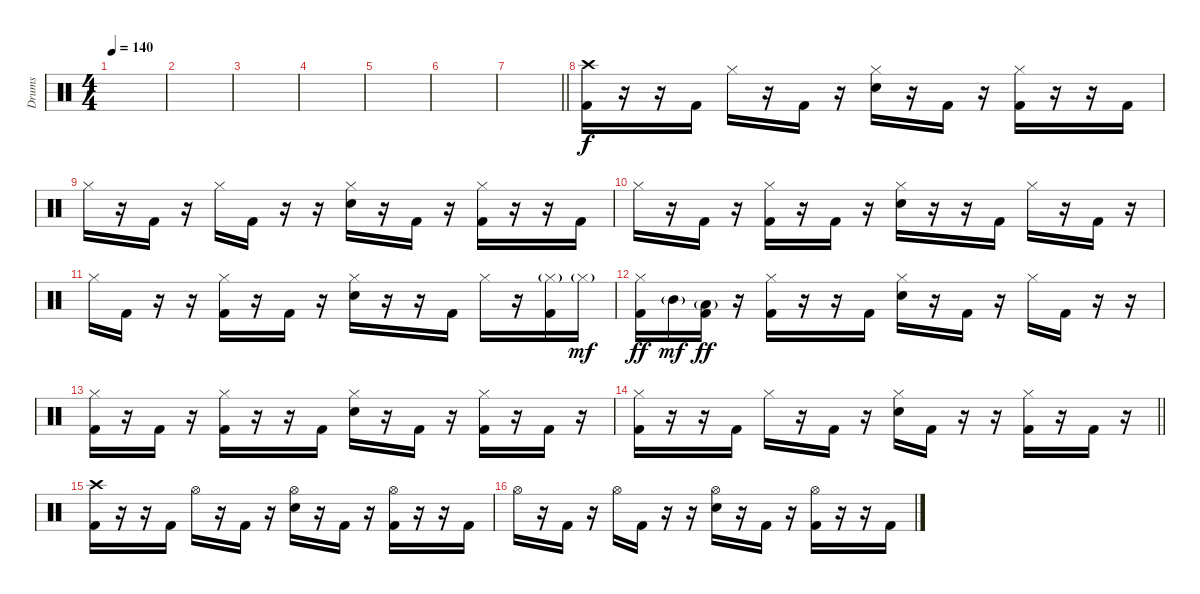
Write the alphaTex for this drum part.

\track ("Drums" "Drums") {instrument percussion}
\staff {score}
\articulation defaults
\ts (4 4)
\section ("" "")
\tempo 140
\clef neutral
\ks c
|
|
|
|
|
|
\barLineRight lightlight
|
\section ("" "")
("Crash high (hit)" "Kick (hit) 2").16 r.16 r.16 "Kick (hit) 2".16 "Hi-Hat (closed)".16 r.16 "Kick (hit) 2".16 r.16 ("Hi-Hat (closed)" "Electric Snare (hit)").16 r.16 "Kick (hit) 2".16 r.16 ("Hi-Hat (closed)" "Kick (hit) 2").16 r.16 r.16 "Kick (hit) 2".16 |
"Hi-Hat (closed)".16 r.16 "Kick (hit) 2".16 r.16 "Hi-Hat (closed)".16 "Kick (hit) 2".16 r.16 r.16 ("Hi-Hat (closed)" "Electric Snare (hit)").16 r.16 "Kick (hit) 2".16 r.16 ("Hi-Hat (closed)" "Kick (hit) 2").16 r.16 r.16 "Kick (hit) 2".16 |
"Hi-Hat (closed)".16 r.16 "Kick (hit) 2".16 r.16 ("Hi-Hat (closed)" "Kick (hit) 2").16 r.16 "Kick (hit) 2".16 r.16 ("Hi-Hat (closed)" "Electric Snare (hit)").16 r.16 r.16 "Kick (hit) 2".16 "Hi-Hat (closed)".16 r.16 "Kick (hit) 2".16 r.16 |
"Hi-Hat (closed)".16 "Kick (hit) 2".16 r.16 r.16 ("Hi-Hat (closed)" "Kick (hit) 2").16 r.16 "Kick (hit) 2".16 r.16 ("Hi-Hat (closed)" "Electric Snare (hit)").16 r.16 r.16 "Kick (hit) 2".16 "Hi-Hat (closed)".16 r.16 ("Hi-Hat (closed)"{g} "Kick (hit) 2").16 "Hi-Hat (closed)"{g}.16{dy mf} |
("Hi-Hat (closed)" "Kick (hit) 2").16{dy ff} "Mid Tom (hit)"{g}.16{dy mf} ("Low Tom (hit)"{g} "Kick (hit) 2").16{dy ff} r.16 ("Hi-Hat (closed)" "Kick (hit) 2").16 r.16 r.16 "Kick (hit) 2".16 ("Hi-Hat (closed)" "Electric Snare (hit)").16 r.16 "Kick (hit) 2".16 r.16 "Hi-Hat (closed)".16 "Kick (hit) 2".16 r.16 r.16 |
("Hi-Hat (closed)" "Kick (hit) 2").16 r.16 "Kick (hit) 2".16 r.16 ("Hi-Hat (closed)" "Kick (hit) 2").16 r.16 r.16 "Kick (hit) 2".16 ("Hi-Hat (closed)" "Electric Snare (hit)").16 r.16 "Kick (hit) 2".16 r.16 ("Hi-Hat (closed)" "Kick (hit) 2").16 r.16 "Kick (hit) 2".16 r.16 |
\barLineRight lightlight
("Hi-Hat (closed)" "Kick (hit) 2").16 r.16 r.16 "Kick (hit) 2".16 "Hi-Hat (closed)".16 r.16 "Kick (hit) 2".16 r.16 ("Hi-Hat (closed)" "Electric Snare (hit)").16 "Kick (hit) 2".16 r.16 r.16 ("Hi-Hat (closed)" "Kick (hit) 2").16 r.16 "Kick (hit) 2".16 r.16 |
\section ("" "")
("Crash high (hit)" "Kick (hit) 2").16 r.16 r.16 "Kick (hit) 2".16 "Hi-Hat (open)".16 r.16 "Kick (hit) 2".16 r.16 ("Hi-Hat (open)" "Electric Snare (hit)").16 r.16 "Kick (hit) 2".16 r.16 ("Hi-Hat (open)" "Kick (hit) 2").16 r.16 r.16 "Kick (hit) 2".16 |
"Hi-Hat (open)".16 r.16 "Kick (hit) 2".16 r.16 "Hi-Hat (open)".16 "Kick (hit) 2".16 r.16 r.16 ("Hi-Hat (open)" "Electric Snare (hit)").16 r.16 "Kick (hit) 2".16 r.16 ("Hi-Hat (open)" "Kick (hit) 2").16 r.16 r.16 "Kick (hit) 2".16
